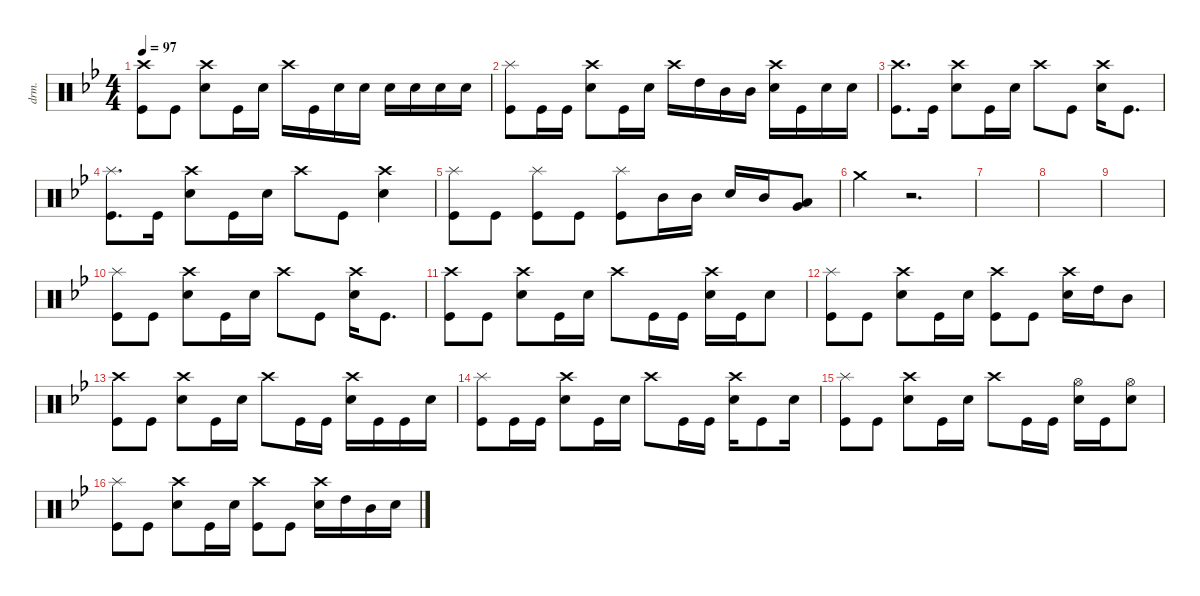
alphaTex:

\defaultSystemsLayout 4
\hideDynamics
\bracketExtendMode nobrackets
\otherSystemsTrackNameOrientation horizontal
\track ("Drumkit" "drm.") {instrument percussion}
\staff {score}
\articulation defaults
\ts (4 4)
\tempo 97
\clef neutral
\ks bb
("Kick (hit)" "Crash high (hit)").8{dy mp} "Kick (hit)".8 ("Snare (hit) 2" "Crash high (hit)").8 "Kick (hit)".16 "Snare (hit) 2".16 "Crash high (hit)".16 "Kick (hit)".16 "Snare (hit) 2".16 "Snare (hit) 2".16 "Snare (hit) 2".16 "Snare (hit) 2".16 "Snare (hit) 2".16 "Snare (hit) 2".16 |
("Splash (hit)" "Kick (hit)").8 "Kick (hit)".16 "Kick (hit)".16 ("Snare (hit) 2" "Crash high (hit)").8 "Kick (hit)".16 "Snare (hit) 2".16 "Crash high (hit)".16 "High Tom (hit)".16 "Mid Tom (hit)".16 "Mid Tom (hit)".16 ("Snare (hit) 2" "Crash high (hit)").16 "Kick (hit)".16 "Snare (hit) 2".16 "Snare (hit) 2".16 |
("Kick (hit)" "Crash high (hit)").8{d} "Kick (hit)".16 ("Snare (hit) 2" "Crash high (hit)").8 "Kick (hit)".16 "Snare (hit) 2".16 "Crash high (hit)".8 "Kick (hit)".8 ("Snare (hit) 2" "Crash high (hit)").16 "Kick (hit)".8{d} |
("Kick (hit)" "Splash (hit)").8{d} "Kick (hit)".16 ("Snare (hit) 2" "Crash high (hit)").8 "Kick (hit)".16 "Snare (hit) 2".16 "Crash high (hit)".8 "Kick (hit)".8 ("Snare (hit) 2" "Crash high (hit)").4 |
("Kick (hit)" "Splash (hit)").8 "Kick (hit)".8 ("Kick (hit)" "Splash (hit)").8 "Kick (hit)".8 ("Kick (hit)" "Splash (hit)").8 "Mid Tom (hit)".16 "Mid Tom (hit)".16 "Snare (hit) 2".16 "Mid Tom (hit)".16 ("Low Tom (hit)" "Very Low Tom (hit)").8 |
"Crash medium (hit)".4 r.2{d} |
|
|
|
("Kick (hit)" "Splash (hit)").8 "Kick (hit)".8 ("Snare (hit) 2" "Crash high (hit)").8 "Kick (hit)".16 "Snare (hit) 2".16 "Crash high (hit)".8 "Kick (hit)".8 ("Snare (hit) 2" "Crash high (hit)").16 "Kick (hit)".8{d} |
("Kick (hit)" "Crash high (hit)").8 "Kick (hit)".8 ("Snare (hit) 2" "Crash high (hit)").8 "Kick (hit)".16 "Snare (hit) 2".16 "Crash high (hit)".8 "Kick (hit)".16 "Kick (hit)".16 ("Snare (hit) 2" "Crash high (hit)").16 "Kick (hit)".16 "Snare (hit) 2".8 |
("Kick (hit)" "Splash (hit)").8 "Kick (hit)".8 ("Snare (hit) 2" "Crash high (hit)").8 "Kick (hit)".16 "Snare (hit) 2".16 ("Kick (hit)" "Crash high (hit)").8 "Kick (hit)".8 ("Snare (hit) 2" "Crash high (hit)").16 "High Tom (hit)".16 "Mid Tom (hit)".8 |
("Kick (hit)" "Crash high (hit)").8 "Kick (hit)".8 ("Snare (hit) 2" "Crash high (hit)").8 "Kick (hit)".16 "Snare (hit) 2".16 "Crash high (hit)".8 "Kick (hit)".16 "Kick (hit)".16 ("Snare (hit) 2" "Crash high (hit)").16 "Kick (hit)".16 "Kick (hit)".16 "Snare (hit) 2".16 |
("Kick (hit)" "Splash (hit)").8 "Kick (hit)".16 "Kick (hit)".16 ("Snare (hit) 2" "Crash high (hit)").8 "Kick (hit)".16 "Snare (hit) 2".16 "Crash high (hit)".8 "Kick (hit)".16 "Kick (hit)".16 ("Snare (hit) 2" "Crash high (hit)").16 "Kick (hit)".8 "Snare (hit) 2".16 |
("Kick (hit)" "Splash (hit)").8 "Kick (hit)".8 ("Snare (hit) 2" "Crash high (hit)").8 "Kick (hit)".16 "Snare (hit) 2".16 "Crash high (hit)".8 "Kick (hit)".16 "Kick (hit)".16 ("Snare (hit) 2" "Hi-Hat (open)").16 "Kick (hit)".16 ("Snare (hit) 2" "Hi-Hat (open)").8 |
("Kick (hit)" "Splash (hit)").8 "Kick (hit)".8 ("Snare (hit) 2" "Crash high (hit)").8 "Kick (hit)".16 "Snare (hit) 2".16 ("Kick (hit)" "Crash high (hit)").8 "Kick (hit)".8 ("Snare (hit) 2" "Crash high (hit)").16 "High Tom (hit)".16 "Mid Tom (hit)".16 "Snare (hit) 2".16
